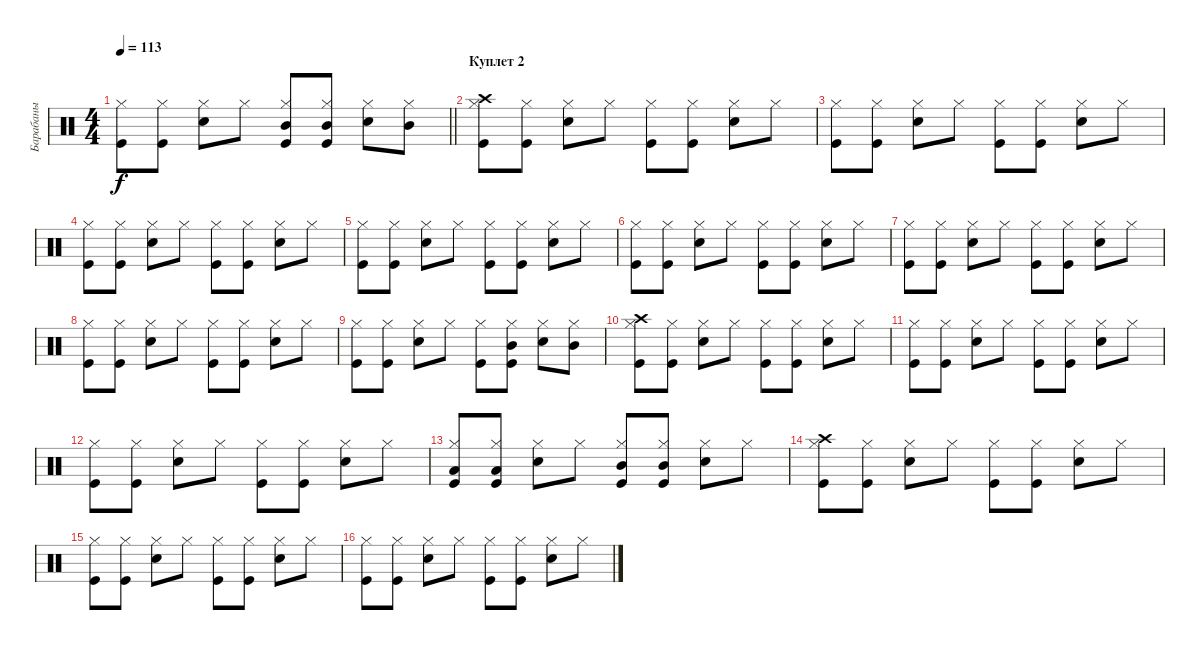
\track ("Барабаны" "Барабаны") {instrument percussion}
\staff {score}
\articulation defaults
\ts (4 4)
\tempo 113
\clef neutral
\barLineRight lightlight
\ks c
("Kick (hit)" "Hi-Hat (closed)").8{dy f} ("Kick (hit)" "Hi-Hat (closed)").8 ("Snare (hit) 2" "Hi-Hat (closed)").8 "Hi-Hat (closed)".8 ("Kick (hit)" "Hi-Hat (closed)" "Mid Tom (hit)").8 ("Kick (hit)" "Hi-Hat (closed)" "Mid Tom (hit)").8 ("Snare (hit) 2" "Hi-Hat (closed)").8 ("Hi-Hat (closed)" "Mid Tom (hit)").8 |
\section ("" "Куплет 2")
("Kick (hit)" "Hi-Hat (closed)" "Crash high (hit)").8 ("Kick (hit)" "Hi-Hat (closed)").8 ("Snare (hit) 2" "Hi-Hat (closed)").8 "Hi-Hat (closed)".8 ("Kick (hit)" "Hi-Hat (closed)").8 ("Kick (hit)" "Hi-Hat (closed)").8 ("Snare (hit) 2" "Hi-Hat (closed)").8 "Hi-Hat (closed)".8 |
("Kick (hit)" "Hi-Hat (closed)").8 ("Kick (hit)" "Hi-Hat (closed)").8 ("Snare (hit) 2" "Hi-Hat (closed)").8 "Hi-Hat (closed)".8 ("Kick (hit)" "Hi-Hat (closed)").8 ("Kick (hit)" "Hi-Hat (closed)").8 ("Snare (hit) 2" "Hi-Hat (closed)").8 "Hi-Hat (closed)".8 |
("Kick (hit)" "Hi-Hat (closed)").8 ("Kick (hit)" "Hi-Hat (closed)").8 ("Snare (hit) 2" "Hi-Hat (closed)").8 "Hi-Hat (closed)".8 ("Kick (hit)" "Hi-Hat (closed)").8 ("Kick (hit)" "Hi-Hat (closed)").8 ("Snare (hit) 2" "Hi-Hat (closed)").8 "Hi-Hat (closed)".8 |
("Kick (hit)" "Hi-Hat (closed)").8 ("Kick (hit)" "Hi-Hat (closed)").8 ("Snare (hit) 2" "Hi-Hat (closed)").8 "Hi-Hat (closed)".8 ("Kick (hit)" "Hi-Hat (closed)").8 ("Kick (hit)" "Hi-Hat (closed)").8 ("Snare (hit) 2" "Hi-Hat (closed)").8 "Hi-Hat (closed)".8 |
("Kick (hit)" "Hi-Hat (closed)").8 ("Kick (hit)" "Hi-Hat (closed)").8 ("Snare (hit) 2" "Hi-Hat (closed)").8 "Hi-Hat (closed)".8 ("Kick (hit)" "Hi-Hat (closed)").8 ("Kick (hit)" "Hi-Hat (closed)").8 ("Snare (hit) 2" "Hi-Hat (closed)").8 "Hi-Hat (closed)".8 |
("Kick (hit)" "Hi-Hat (closed)").8 ("Kick (hit)" "Hi-Hat (closed)").8 ("Snare (hit) 2" "Hi-Hat (closed)").8 "Hi-Hat (closed)".8 ("Kick (hit)" "Hi-Hat (closed)").8 ("Kick (hit)" "Hi-Hat (closed)").8 ("Snare (hit) 2" "Hi-Hat (closed)").8 "Hi-Hat (closed)".8 |
("Kick (hit)" "Hi-Hat (closed)").8 ("Kick (hit)" "Hi-Hat (closed)").8 ("Snare (hit) 2" "Hi-Hat (closed)").8 "Hi-Hat (closed)".8 ("Kick (hit)" "Hi-Hat (closed)").8 ("Kick (hit)" "Hi-Hat (closed)").8 ("Snare (hit) 2" "Hi-Hat (closed)").8 "Hi-Hat (closed)".8 |
("Kick (hit)" "Hi-Hat (closed)").8 ("Kick (hit)" "Hi-Hat (closed)").8 ("Snare (hit) 2" "Hi-Hat (closed)").8 "Hi-Hat (closed)".8 ("Kick (hit)" "Hi-Hat (closed)").8 ("Kick (hit)" "Hi-Hat (closed)" "Mid Tom (hit)").8 ("Snare (hit) 2" "Hi-Hat (closed)").8 ("Hi-Hat (closed)" "Mid Tom (hit)").8 |
("Kick (hit)" "Hi-Hat (closed)" "Crash high (hit)").8 ("Kick (hit)" "Hi-Hat (closed)").8 ("Snare (hit) 2" "Hi-Hat (closed)").8 "Hi-Hat (closed)".8 ("Kick (hit)" "Hi-Hat (closed)").8 ("Kick (hit)" "Hi-Hat (closed)").8 ("Snare (hit) 2" "Hi-Hat (closed)").8 "Hi-Hat (closed)".8 |
("Kick (hit)" "Hi-Hat (closed)").8 ("Kick (hit)" "Hi-Hat (closed)").8 ("Snare (hit) 2" "Hi-Hat (closed)").8 "Hi-Hat (closed)".8 ("Kick (hit)" "Hi-Hat (closed)").8 ("Kick (hit)" "Hi-Hat (closed)").8 ("Snare (hit) 2" "Hi-Hat (closed)").8 "Hi-Hat (closed)".8 |
("Kick (hit)" "Hi-Hat (closed)").8 ("Kick (hit)" "Hi-Hat (closed)").8 ("Snare (hit) 2" "Hi-Hat (closed)").8 "Hi-Hat (closed)".8 ("Kick (hit)" "Hi-Hat (closed)").8 ("Kick (hit)" "Hi-Hat (closed)").8 ("Snare (hit) 2" "Hi-Hat (closed)").8 "Hi-Hat (closed)".8 |
("Kick (hit)" "Hi-Hat (closed)" "Low Tom (hit)").8 ("Kick (hit)" "Hi-Hat (closed)" "Low Tom (hit)").8 ("Snare (hit) 2" "Hi-Hat (closed)").8 "Hi-Hat (closed)".8 ("Kick (hit)" "Hi-Hat (closed)" "Mid Tom (hit)").8 ("Kick (hit)" "Hi-Hat (closed)" "Mid Tom (hit)").8 ("Snare (hit) 2" "Hi-Hat (closed)").8 "Hi-Hat (closed)".8 |
("Kick (hit)" "Hi-Hat (closed)" "Crash high (hit)").8 ("Kick (hit)" "Hi-Hat (closed)").8 ("Snare (hit) 2" "Hi-Hat (closed)").8 "Hi-Hat (closed)".8 ("Kick (hit)" "Hi-Hat (closed)").8 ("Kick (hit)" "Hi-Hat (closed)").8 ("Snare (hit) 2" "Hi-Hat (closed)").8 "Hi-Hat (closed)".8 |
("Kick (hit)" "Hi-Hat (closed)").8 ("Kick (hit)" "Hi-Hat (closed)").8 ("Snare (hit) 2" "Hi-Hat (closed)").8 "Hi-Hat (closed)".8 ("Kick (hit)" "Hi-Hat (closed)").8 ("Kick (hit)" "Hi-Hat (closed)").8 ("Snare (hit) 2" "Hi-Hat (closed)").8 "Hi-Hat (closed)".8 |
("Kick (hit)" "Hi-Hat (closed)").8 ("Kick (hit)" "Hi-Hat (closed)").8 ("Snare (hit) 2" "Hi-Hat (closed)").8 "Hi-Hat (closed)".8 ("Kick (hit)" "Hi-Hat (closed)").8 ("Kick (hit)" "Hi-Hat (closed)").8 ("Snare (hit) 2" "Hi-Hat (closed)").8 "Hi-Hat (closed)".8
